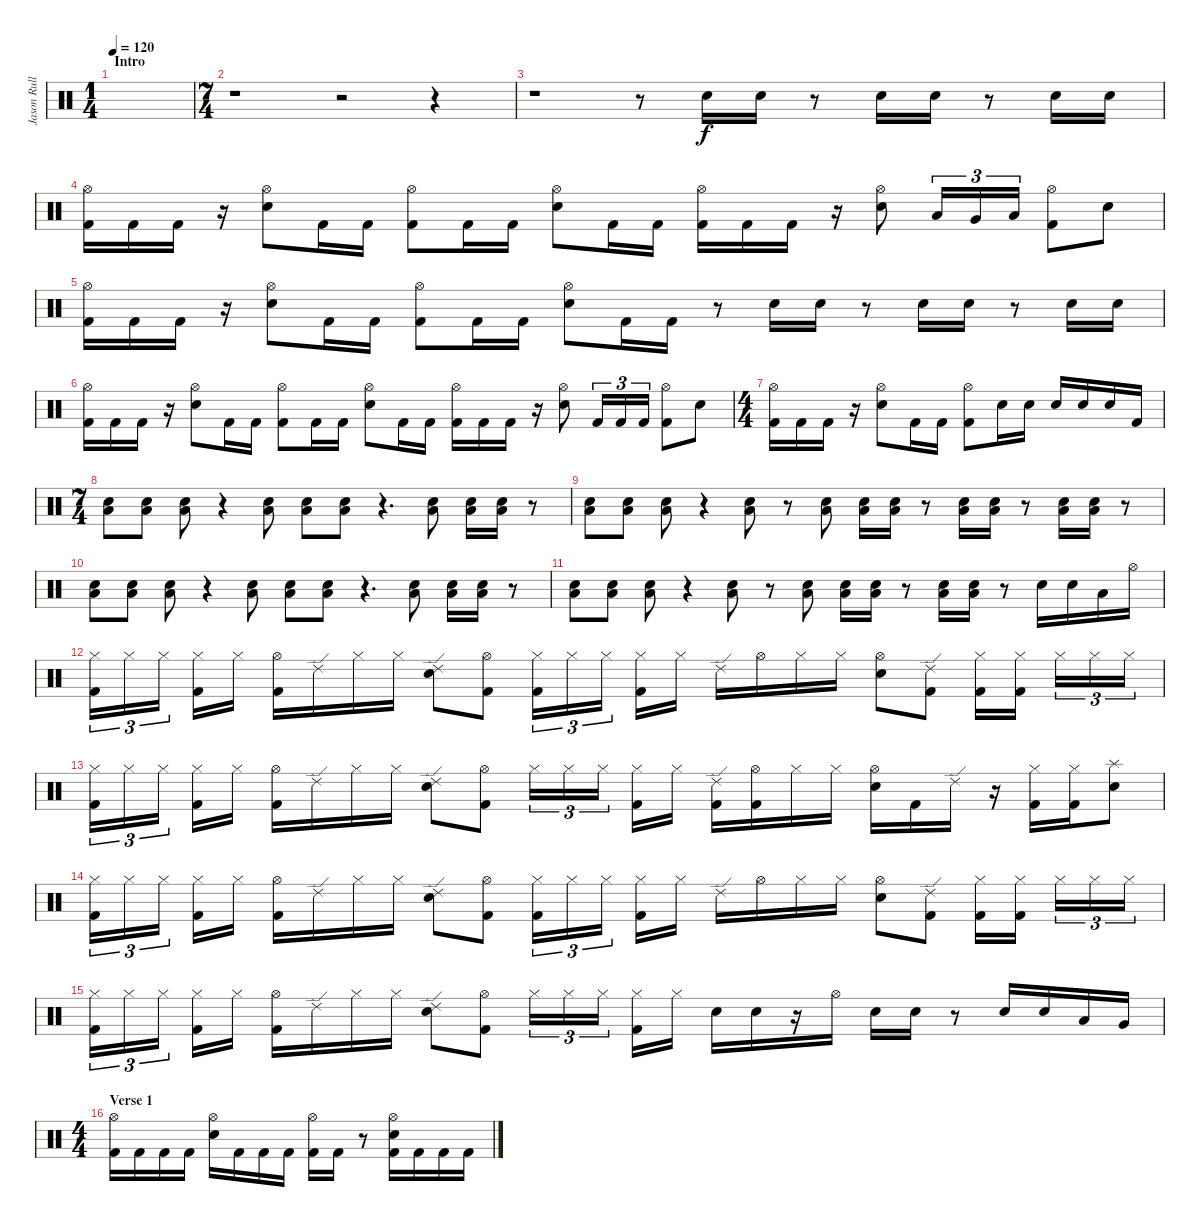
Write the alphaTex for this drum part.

\track ("Jason Rullo" "Jason Rull") {instrument percussion}
\staff {score}
\articulation defaults
\ts (1 4)
\section ("" "Intro")
\tempo 120
\clef neutral
\ks c
|
\ts (7 4)
r.1 r.2 r.4 |
r.1 r.8 "Electric Snare (hit)".16 "Electric Snare (hit)".16 r.8 "Electric Snare (hit)".16 "Electric Snare (hit)".16 r.8 "Electric Snare (hit)".16 "Electric Snare (hit)".16 |
("Kick (hit) 2" "Hi-Hat (open)").16 "Kick (hit) 2".16 "Kick (hit) 2".16 r.16 ("Electric Snare (hit)" "Hi-Hat (open)").8 "Kick (hit) 2".16 "Kick (hit) 2".16 ("Kick (hit) 2" "Hi-Hat (open)").8 "Kick (hit) 2".16 "Kick (hit) 2".16 ("Electric Snare (hit)" "Hi-Hat (open)").8 "Kick (hit) 2".16 "Kick (hit) 2".16 ("Kick (hit) 2" "Hi-Hat (open)").16 "Kick (hit) 2".16 "Kick (hit) 2".16 r.16 ("Hi-Hat (open)" "Electric Snare (hit)").8 "Low Tom (hit)".16{tu (3 2)} "Very Low Tom (hit)".16{tu (3 2)} "Low Floor Tom (hit)".16{tu (3 2)} ("Kick (hit) 2" "Hi-Hat (open)").8 "Electric Snare (hit)".8 |
("Kick (hit) 2" "Hi-Hat (open)").16 "Kick (hit) 2".16 "Kick (hit) 2".16 r.16 ("Electric Snare (hit)" "Hi-Hat (open)").8 "Kick (hit) 2".16 "Kick (hit) 2".16 ("Kick (hit) 2" "Hi-Hat (open)").8 "Kick (hit) 2".16 "Kick (hit) 2".16 ("Hi-Hat (open)" "Electric Snare (hit)").8 "Kick (hit) 2".16 "Kick (hit) 2".16 r.8 "Electric Snare (hit)".16 "Electric Snare (hit)".16 r.8 "Electric Snare (hit)".16 "Electric Snare (hit)".16 r.8 "Electric Snare (hit)".16 "Electric Snare (hit)".16 |
("Kick (hit) 2" "Hi-Hat (open)").16 "Kick (hit) 2".16 "Kick (hit) 2".16 r.16 ("Electric Snare (hit)" "Hi-Hat (open)").8 "Kick (hit) 2".16 "Kick (hit) 2".16 ("Kick (hit) 2" "Hi-Hat (open)").8 "Kick (hit) 2".16 "Kick (hit) 2".16 ("Electric Snare (hit)" "Hi-Hat (open)").8 "Kick (hit) 2".16 "Kick (hit) 2".16 ("Kick (hit) 2" "Hi-Hat (open)").16 "Kick (hit) 2".16 "Kick (hit) 2".16 r.16 ("Hi-Hat (open)" "Electric Snare (hit)").8 "Kick (hit) 2".16{tu (3 2)} "Kick (hit) 2".16{tu (3 2)} "Kick (hit) 2".16{tu (3 2)} ("Kick (hit) 2" "Hi-Hat (open)").8 "Electric Snare (hit)".8 |
\ts (4 4)
("Hi-Hat (open)" "Kick (hit) 2").16 "Kick (hit) 2".16 "Kick (hit) 2".16 r.16 ("Hi-Hat (open)" "Electric Snare (hit)").8 "Kick (hit) 2".16 "Kick (hit) 2".16 ("Hi-Hat (open)" "Kick (hit) 2").8 "Electric Snare (hit)".16 "Electric Snare (hit)".16 "Electric Snare (hit)".16 "Electric Snare (hit)".16 "Electric Snare (hit)".16 "Kick (hit) 2".16 |
\ts (7 4)
("Low Tom (hit)" "Electric Snare (hit)").8 ("Low Tom (hit)" "Electric Snare (hit)").8 ("Low Tom (hit)" "Electric Snare (hit)").8 r.4 ("Electric Snare (hit)" "Low Tom (hit)").8 ("Electric Snare (hit)" "Low Tom (hit)").8 ("Electric Snare (hit)" "Low Tom (hit)").8 r.4{d} ("Low Tom (hit)" "Electric Snare (hit)").8 ("Low Tom (hit)" "Electric Snare (hit)").16 ("Low Tom (hit)" "Electric Snare (hit)").16 r.8 |
("Electric Snare (hit)" "Low Tom (hit)").8 ("Electric Snare (hit)" "Low Tom (hit)").8 ("Electric Snare (hit)" "Low Tom (hit)").8 r.4 ("Electric Snare (hit)" "Low Tom (hit)").8 r.8 ("Electric Snare (hit)" "Low Tom (hit)").8 ("Electric Snare (hit)" "Low Tom (hit)").16 ("Electric Snare (hit)" "Low Tom (hit)").16 r.8 ("Electric Snare (hit)" "Low Tom (hit)").16 ("Electric Snare (hit)" "Low Tom (hit)").16 r.8 ("Electric Snare (hit)" "Low Tom (hit)").16 ("Electric Snare (hit)" "Low Tom (hit)").16 r.8 |
("Low Tom (hit)" "Electric Snare (hit)").8 ("Low Tom (hit)" "Electric Snare (hit)").8 ("Low Tom (hit)" "Electric Snare (hit)").8 r.4 ("Electric Snare (hit)" "Low Tom (hit)").8 ("Electric Snare (hit)" "Low Tom (hit)").8 ("Electric Snare (hit)" "Low Tom (hit)").8 r.4{d} ("Low Tom (hit)" "Electric Snare (hit)").8 ("Low Tom (hit)" "Electric Snare (hit)").16 ("Low Tom (hit)" "Electric Snare (hit)").16 r.8 |
("Electric Snare (hit)" "Low Tom (hit)").8 ("Electric Snare (hit)" "Low Tom (hit)").8 ("Electric Snare (hit)" "Low Tom (hit)").8 r.4 ("Electric Snare (hit)" "Low Tom (hit)").8 r.8 ("Electric Snare (hit)" "Low Tom (hit)").8 ("Electric Snare (hit)" "Low Tom (hit)").16 ("Electric Snare (hit)" "Low Tom (hit)").16 r.8 ("Electric Snare (hit)" "Low Tom (hit)").16 ("Electric Snare (hit)" "Low Tom (hit)").16 r.8 "Electric Snare (hit)".16 "Electric Snare (hit)".16 "Low Tom (hit)".16 "Hi-Hat (open)".16 |
("Kick (hit) 2" "Hi-Hat (closed)").16{tu (3 2)} "Hi-Hat (closed)".16{tu (3 2)} "Hi-Hat (closed)".16{tu (3 2)} ("Kick (hit) 2" "Hi-Hat (closed)").16 "Hi-Hat (closed)".16 ("Kick (hit) 2" "Hi-Hat (open)").16 "Ride (edge) 2".16 "Hi-Hat (closed)".16 "Hi-Hat (closed)".16 ("Electric Snare (hit)" "Ride (edge) 2").8 ("Kick (hit) 2" "Hi-Hat (open)").8 ("Kick (hit) 2" "Hi-Hat (closed)").16{tu (3 2)} "Hi-Hat (closed)".16{tu (3 2)} "Hi-Hat (closed)".16{tu (3 2)} ("Kick (hit) 2" "Hi-Hat (closed)").16 "Hi-Hat (closed)".16 "Ride (edge) 2".16 "Hi-Hat (open)".16 "Hi-Hat (closed)".16 "Hi-Hat (closed)".16 ("Electric Snare (hit)" "Hi-Hat (open)").8 ("Kick (hit) 2" "Ride (edge) 2").8 ("Kick (hit) 2" "Hi-Hat (closed)").16 ("Kick (hit) 2" "Hi-Hat (closed)").16 "Hi-Hat (closed)".16{tu (3 2)} "Hi-Hat (closed)".16{tu (3 2)} "Hi-Hat (closed)".16{tu (3 2)} |
("Kick (hit) 2" "Hi-Hat (closed)").16{tu (3 2)} "Hi-Hat (closed)".16{tu (3 2)} "Hi-Hat (closed)".16{tu (3 2)} ("Kick (hit) 2" "Hi-Hat (closed)").16 "Hi-Hat (closed)".16 ("Kick (hit) 2" "Hi-Hat (open)").16 "Ride (edge) 2".16 "Hi-Hat (closed)".16 "Hi-Hat (closed)".16 ("Electric Snare (hit)" "Ride (edge) 2").8 ("Kick (hit) 2" "Hi-Hat (open)").8 "Hi-Hat (closed)".16{tu (3 2)} "Hi-Hat (closed)".16{tu (3 2)} "Hi-Hat (closed)".16{tu (3 2)} ("Kick (hit) 2" "Hi-Hat (closed)").16 "Hi-Hat (closed)".16 ("Kick (hit) 2" "Ride (edge) 2").16 ("Kick (hit) 2" "Hi-Hat (open)").16 "Hi-Hat (closed)".16 "Hi-Hat (closed)".16 ("Electric Snare (hit)" "Hi-Hat (open)").16 "Kick (hit) 2".16 "Ride (edge) 2".16 r.16 ("Kick (hit) 2" "Hi-Hat (closed)").16 ("Kick (hit) 2" "Hi-Hat (closed)").16 ("Splash (hit)" "Electric Snare (hit)").8 |
("Kick (hit) 2" "Hi-Hat (closed)").16{tu (3 2)} "Hi-Hat (closed)".16{tu (3 2)} "Hi-Hat (closed)".16{tu (3 2)} ("Kick (hit) 2" "Hi-Hat (closed)").16 "Hi-Hat (closed)".16 ("Kick (hit) 2" "Hi-Hat (open)").16 "Ride (edge) 2".16 "Hi-Hat (closed)".16 "Hi-Hat (closed)".16 ("Electric Snare (hit)" "Ride (edge) 2").8 ("Kick (hit) 2" "Hi-Hat (open)").8 ("Kick (hit) 2" "Hi-Hat (closed)").16{tu (3 2)} "Hi-Hat (closed)".16{tu (3 2)} "Hi-Hat (closed)".16{tu (3 2)} ("Kick (hit) 2" "Hi-Hat (closed)").16 "Hi-Hat (closed)".16 "Ride (edge) 2".16 "Hi-Hat (open)".16 "Hi-Hat (closed)".16 "Hi-Hat (closed)".16 ("Electric Snare (hit)" "Hi-Hat (open)").8 ("Kick (hit) 2" "Ride (edge) 2").8 ("Kick (hit) 2" "Hi-Hat (closed)").16 ("Kick (hit) 2" "Hi-Hat (closed)").16 "Hi-Hat (closed)".16{tu (3 2)} "Hi-Hat (closed)".16{tu (3 2)} "Hi-Hat (closed)".16{tu (3 2)} |
("Kick (hit) 2" "Hi-Hat (closed)").16{tu (3 2)} "Hi-Hat (closed)".16{tu (3 2)} "Hi-Hat (closed)".16{tu (3 2)} ("Kick (hit) 2" "Hi-Hat (closed)").16 "Hi-Hat (closed)".16 ("Kick (hit) 2" "Hi-Hat (open)").16 "Ride (edge) 2".16 "Hi-Hat (closed)".16 "Hi-Hat (closed)".16 ("Electric Snare (hit)" "Ride (edge) 2").8 ("Kick (hit) 2" "Hi-Hat (open)").8 "Hi-Hat (closed)".16{tu (3 2)} "Hi-Hat (closed)".16{tu (3 2)} "Hi-Hat (closed)".16{tu (3 2)} ("Kick (hit) 2" "Hi-Hat (closed)").16 "Hi-Hat (closed)".16 "Electric Snare (hit)".16 "Electric Snare (hit)".16 r.16 "Hi-Hat (open)".16 "Electric Snare (hit)".16 "Electric Snare (hit)".16 r.8 "Electric Snare (hit)".16 "Electric Snare (hit)".16 "Low Tom (hit)".16 "Very Low Tom (hit)".16 |
\ts (4 4)
\section ("" "Verse 1")
("Kick (hit) 2" "Hi-Hat (open)").16 "Kick (hit) 2".16 "Kick (hit) 2".16 "Kick (hit) 2".16 ("Electric Snare (hit)" "Hi-Hat (open)").16 "Kick (hit) 2".16 "Kick (hit) 2".16 "Kick (hit) 2".16 ("Kick (hit) 2" "Hi-Hat (open)").16 "Kick (hit) 2".16 r.8 ("Electric Snare (hit)" "Kick (hit) 2" "Hi-Hat (open)").16 "Kick (hit) 2".16 "Kick (hit) 2".16 "Kick (hit) 2".16
